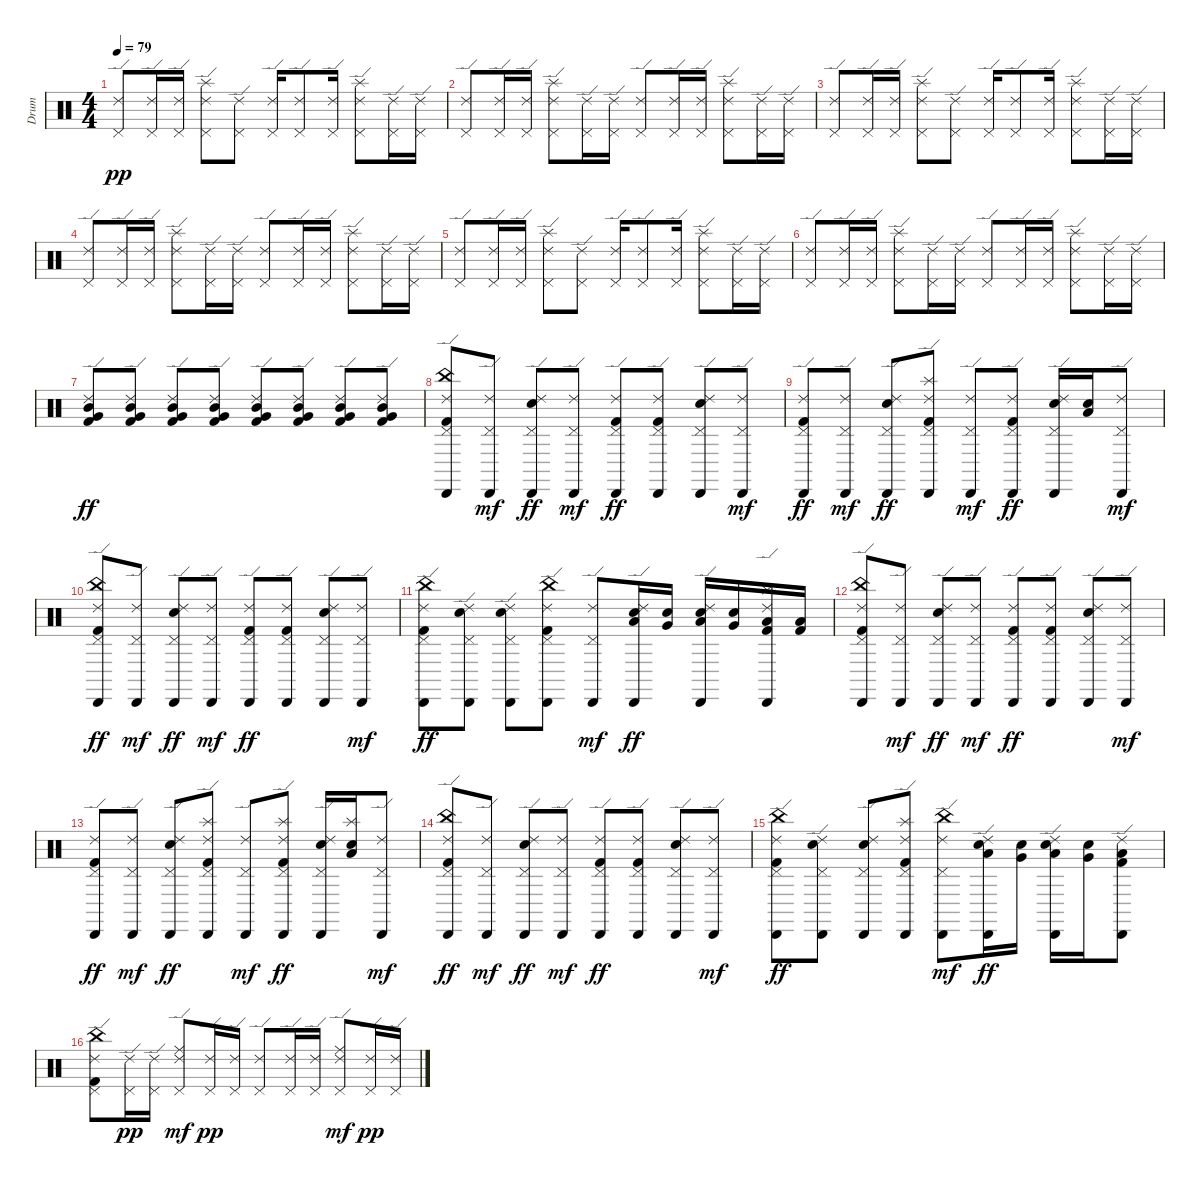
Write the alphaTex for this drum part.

\track ("Drum" "Drum") {instrument percussion}
\staff {score}
\articulation defaults
\ts (4 4)
\tempo 79
\clef neutral
\ks c
("Ride (edge) 2" "Pedal Hi-Hat (hit)").8{dy pp} ("Ride (edge) 2" "Pedal Hi-Hat (hit)").16 ("Ride (edge) 2" "Pedal Hi-Hat (hit)").16 ("Ride (edge) 2" "Pedal Hi-Hat (hit)" "Splash (hit)").8 ("Ride (edge) 2" "Pedal Hi-Hat (hit)").8 ("Ride (edge) 2" "Pedal Hi-Hat (hit)").16 ("Ride (edge) 2" "Pedal Hi-Hat (hit)").8 ("Ride (edge) 2" "Pedal Hi-Hat (hit)").16 ("Ride (edge) 2" "Pedal Hi-Hat (hit)" "Splash (hit)").8 ("Ride (edge) 2" "Pedal Hi-Hat (hit)").16 ("Ride (edge) 2" "Pedal Hi-Hat (hit)").16 |
("Ride (edge) 2" "Pedal Hi-Hat (hit)").8 ("Ride (edge) 2" "Pedal Hi-Hat (hit)").16 ("Ride (edge) 2" "Pedal Hi-Hat (hit)").16 ("Ride (edge) 2" "Pedal Hi-Hat (hit)" "Splash (hit)").8 ("Ride (edge) 2" "Pedal Hi-Hat (hit)").16 ("Ride (edge) 2" "Pedal Hi-Hat (hit)").16 ("Ride (edge) 2" "Pedal Hi-Hat (hit)").8 ("Ride (edge) 2" "Pedal Hi-Hat (hit)").16 ("Ride (edge) 2" "Pedal Hi-Hat (hit)").16 ("Ride (edge) 2" "Pedal Hi-Hat (hit)" "Splash (hit)").8 ("Ride (edge) 2" "Pedal Hi-Hat (hit)").16 ("Ride (edge) 2" "Pedal Hi-Hat (hit)").16 |
("Ride (edge) 2" "Pedal Hi-Hat (hit)").8 ("Ride (edge) 2" "Pedal Hi-Hat (hit)").16 ("Ride (edge) 2" "Pedal Hi-Hat (hit)").16 ("Ride (edge) 2" "Pedal Hi-Hat (hit)" "Splash (hit)").8 ("Ride (edge) 2" "Pedal Hi-Hat (hit)").8 ("Ride (edge) 2" "Pedal Hi-Hat (hit)").16 ("Ride (edge) 2" "Pedal Hi-Hat (hit)").8 ("Ride (edge) 2" "Pedal Hi-Hat (hit)").16 ("Ride (edge) 2" "Pedal Hi-Hat (hit)" "Splash (hit)").8 ("Ride (edge) 2" "Pedal Hi-Hat (hit)").16 ("Ride (edge) 2" "Pedal Hi-Hat (hit)").16 |
("Ride (edge) 2" "Pedal Hi-Hat (hit)").8 ("Ride (edge) 2" "Pedal Hi-Hat (hit)").16 ("Ride (edge) 2" "Pedal Hi-Hat (hit)").16 ("Ride (edge) 2" "Pedal Hi-Hat (hit)" "Splash (hit)").8 ("Ride (edge) 2" "Pedal Hi-Hat (hit)").16 ("Ride (edge) 2" "Pedal Hi-Hat (hit)").16 ("Ride (edge) 2" "Pedal Hi-Hat (hit)").8 ("Ride (edge) 2" "Pedal Hi-Hat (hit)").16 ("Ride (edge) 2" "Pedal Hi-Hat (hit)").16 ("Ride (edge) 2" "Pedal Hi-Hat (hit)" "Splash (hit)").8 ("Ride (edge) 2" "Pedal Hi-Hat (hit)").16 ("Ride (edge) 2" "Pedal Hi-Hat (hit)").16 |
("Ride (edge) 2" "Pedal Hi-Hat (hit)").8 ("Ride (edge) 2" "Pedal Hi-Hat (hit)").16 ("Ride (edge) 2" "Pedal Hi-Hat (hit)").16 ("Ride (edge) 2" "Pedal Hi-Hat (hit)" "Splash (hit)").8 ("Ride (edge) 2" "Pedal Hi-Hat (hit)").8 ("Ride (edge) 2" "Pedal Hi-Hat (hit)").16 ("Ride (edge) 2" "Pedal Hi-Hat (hit)").8 ("Ride (edge) 2" "Pedal Hi-Hat (hit)").16 ("Ride (edge) 2" "Pedal Hi-Hat (hit)" "Splash (hit)").8 ("Ride (edge) 2" "Pedal Hi-Hat (hit)").16 ("Ride (edge) 2" "Pedal Hi-Hat (hit)").16 |
("Ride (edge) 2" "Pedal Hi-Hat (hit)").8 ("Ride (edge) 2" "Pedal Hi-Hat (hit)").16 ("Ride (edge) 2" "Pedal Hi-Hat (hit)").16 ("Ride (edge) 2" "Pedal Hi-Hat (hit)" "Splash (hit)").8 ("Ride (edge) 2" "Pedal Hi-Hat (hit)").16 ("Ride (edge) 2" "Pedal Hi-Hat (hit)").16 ("Ride (edge) 2" "Pedal Hi-Hat (hit)").8 ("Ride (edge) 2" "Pedal Hi-Hat (hit)").16 ("Ride (edge) 2" "Pedal Hi-Hat (hit)").16 ("Ride (edge) 2" "Pedal Hi-Hat (hit)" "Splash (hit)").8 ("Ride (edge) 2" "Pedal Hi-Hat (hit)").16 ("Ride (edge) 2" "Pedal Hi-Hat (hit)").16 |
("Ride (edge) 2" "Mid Tom (hit)" "Very Low Tom (hit)" "Kick (hit) 2").8{dy ff} ("Ride (edge) 2" "Mid Tom (hit)" "Very Low Tom (hit)" "Kick (hit) 2").8 ("Ride (edge) 2" "Mid Tom (hit)" "Very Low Tom (hit)" "Kick (hit) 2").8 ("Ride (edge) 2" "Mid Tom (hit)" "Very Low Tom (hit)" "Kick (hit) 2").8 ("Ride (edge) 2" "Mid Tom (hit)" "Very Low Tom (hit)" "Kick (hit) 2").8 ("Ride (edge) 2" "Mid Tom (hit)" "Very Low Tom (hit)" "Kick (hit) 2").8 ("Ride (edge) 2" "Mid Tom (hit)" "Very Low Tom (hit)" "Kick (hit) 2").8 ("Ride (edge) 2" "Mid Tom (hit)" "Very Low Tom (hit)" "Kick (hit) 2").8 |
("Ride (edge) 2" "Cabasa (hit)" "Pedal Hi-Hat (hit)" "China (hit)" "Kick (hit) 2").8 ("Ride (edge) 2" "Cabasa (hit)" "Pedal Hi-Hat (hit)").8{dy mf} ("Ride (edge) 2" "Cabasa (hit)" "Pedal Hi-Hat (hit)" "Snare (hit) 2").8{dy ff} ("Ride (edge) 2" "Cabasa (hit)" "Pedal Hi-Hat (hit)").8{dy mf} ("Ride (edge) 2" "Cabasa (hit)" "Pedal Hi-Hat (hit)" "Kick (hit) 2").8{dy ff} ("Ride (edge) 2" "Cabasa (hit)" "Pedal Hi-Hat (hit)" "Kick (hit) 2").8 ("Ride (edge) 2" "Cabasa (hit)" "Pedal Hi-Hat (hit)" "Snare (hit) 2").8 ("Ride (edge) 2" "Cabasa (hit)" "Pedal Hi-Hat (hit)").8{dy mf} |
("Ride (edge) 2" "Cabasa (hit)" "Pedal Hi-Hat (hit)" "Kick (hit) 2").8{dy ff} ("Ride (edge) 2" "Cabasa (hit)" "Pedal Hi-Hat (hit)").8{dy mf} ("Ride (edge) 2" "Cabasa (hit)" "Pedal Hi-Hat (hit)" "Snare (hit) 2").8{dy ff} ("Ride (edge) 2" "Cabasa (hit)" "Pedal Hi-Hat (hit)" "Splash (hit)" "Kick (hit) 2").8 ("Ride (edge) 2" "Cabasa (hit)" "Pedal Hi-Hat (hit)").8{dy mf} ("Ride (edge) 2" "Cabasa (hit)" "Pedal Hi-Hat (hit)" "Kick (hit) 2").8{dy ff} ("Ride (edge) 2" "Cabasa (hit)" "Pedal Hi-Hat (hit)" "Snare (hit) 2").16 ("Low Tom (hit)" "Snare (hit) 2").16 ("Ride (edge) 2" "Cabasa (hit)" "Pedal Hi-Hat (hit)").8{dy mf} |
("Ride (edge) 2" "Cabasa (hit)" "Pedal Hi-Hat (hit)" "China (hit)" "Kick (hit) 2").8{dy ff} ("Ride (edge) 2" "Cabasa (hit)" "Pedal Hi-Hat (hit)").8{dy mf} ("Ride (edge) 2" "Cabasa (hit)" "Pedal Hi-Hat (hit)" "Snare (hit) 2").8{dy ff} ("Ride (edge) 2" "Cabasa (hit)" "Pedal Hi-Hat (hit)").8{dy mf} ("Ride (edge) 2" "Cabasa (hit)" "Pedal Hi-Hat (hit)" "Kick (hit) 2").8{dy ff} ("Ride (edge) 2" "Cabasa (hit)" "Pedal Hi-Hat (hit)" "Kick (hit) 2").8 ("Ride (edge) 2" "Cabasa (hit)" "Pedal Hi-Hat (hit)" "Snare (hit) 2").8 ("Ride (edge) 2" "Cabasa (hit)" "Pedal Hi-Hat (hit)").8{dy mf} |
("Ride (edge) 2" "Cabasa (hit)" "Pedal Hi-Hat (hit)" "China (hit)" "Kick (hit) 2").8{dy ff} ("Ride (edge) 2" "Cabasa (hit)" "Pedal Hi-Hat (hit)" "Snare (hit) 2").8 ("Ride (edge) 2" "Cabasa (hit)" "Pedal Hi-Hat (hit)" "Snare (hit) 2").8 ("Ride (edge) 2" "Cabasa (hit)" "Pedal Hi-Hat (hit)" "China (hit)" "Kick (hit) 2").8 ("Ride (edge) 2" "Cabasa (hit)" "Pedal Hi-Hat (hit)").8{dy mf} ("Ride (edge) 2" "Cabasa (hit)" "Low Tom (hit)" "Snare (hit) 2").16{dy ff} ("Very Low Tom (hit)" "Snare (hit) 2").16 ("Ride (edge) 2" "Cabasa (hit)" "Low Tom (hit)" "Snare (hit) 2").16 ("Very Low Tom (hit)" "Snare (hit) 2").16 ("Ride (edge) 2" "Cabasa (hit)" "Splash (hit)" "Low Floor Tom (hit)" "Kick (hit) 2").16 ("Low Floor Tom (hit)" "Kick (hit) 2").16 |
("Ride (edge) 2" "Cabasa (hit)" "Pedal Hi-Hat (hit)" "China (hit)" "Kick (hit) 2").8 ("Ride (edge) 2" "Cabasa (hit)" "Pedal Hi-Hat (hit)").8{dy mf} ("Ride (edge) 2" "Cabasa (hit)" "Pedal Hi-Hat (hit)" "Snare (hit) 2").8{dy ff} ("Ride (edge) 2" "Cabasa (hit)" "Pedal Hi-Hat (hit)").8{dy mf} ("Ride (edge) 2" "Cabasa (hit)" "Pedal Hi-Hat (hit)" "Kick (hit) 2").8{dy ff} ("Ride (edge) 2" "Cabasa (hit)" "Pedal Hi-Hat (hit)" "Kick (hit) 2").8 ("Ride (edge) 2" "Cabasa (hit)" "Pedal Hi-Hat (hit)" "Snare (hit) 2").8 ("Ride (edge) 2" "Cabasa (hit)" "Pedal Hi-Hat (hit)").8{dy mf} |
("Ride (edge) 2" "Cabasa (hit)" "Pedal Hi-Hat (hit)" "Kick (hit) 2").8{dy ff} ("Ride (edge) 2" "Cabasa (hit)" "Pedal Hi-Hat (hit)").8{dy mf} ("Ride (edge) 2" "Cabasa (hit)" "Pedal Hi-Hat (hit)" "Snare (hit) 2").8{dy ff} ("Ride (edge) 2" "Cabasa (hit)" "Pedal Hi-Hat (hit)" "Splash (hit)" "Kick (hit) 2").8 ("Ride (edge) 2" "Cabasa (hit)" "Pedal Hi-Hat (hit)").8{dy mf} ("Ride (edge) 2" "Cabasa (hit)" "Pedal Hi-Hat (hit)" "Splash (hit)" "Kick (hit) 2").8{dy ff} ("Ride (edge) 2" "Cabasa (hit)" "Pedal Hi-Hat (hit)" "Snare (hit) 2").16 ("Splash (hit)" "Low Tom (hit)" "Snare (hit) 2").16 ("Ride (edge) 2" "Cabasa (hit)" "Pedal Hi-Hat (hit)").8{dy mf} |
("Ride (edge) 2" "Cabasa (hit)" "Pedal Hi-Hat (hit)" "China (hit)" "Kick (hit) 2").8{dy ff} ("Ride (edge) 2" "Cabasa (hit)" "Pedal Hi-Hat (hit)").8{dy mf} ("Ride (edge) 2" "Cabasa (hit)" "Pedal Hi-Hat (hit)" "Snare (hit) 2").8{dy ff} ("Ride (edge) 2" "Cabasa (hit)" "Pedal Hi-Hat (hit)").8{dy mf} ("Ride (edge) 2" "Cabasa (hit)" "Pedal Hi-Hat (hit)" "Kick (hit) 2").8{dy ff} ("Ride (edge) 2" "Cabasa (hit)" "Pedal Hi-Hat (hit)" "Kick (hit) 2").8 ("Ride (edge) 2" "Cabasa (hit)" "Pedal Hi-Hat (hit)" "Snare (hit) 2").8 ("Ride (edge) 2" "Cabasa (hit)" "Pedal Hi-Hat (hit)").8{dy mf} |
("Ride (edge) 2" "Cabasa (hit)" "Pedal Hi-Hat (hit)" "China (hit)" "Kick (hit) 2").8{dy ff} ("Ride (edge) 2" "Cabasa (hit)" "Pedal Hi-Hat (hit)" "Snare (hit) 2").8 ("Ride (edge) 2" "Cabasa (hit)" "Pedal Hi-Hat (hit)" "Snare (hit) 2").8 ("Ride (edge) 2" "Cabasa (hit)" "Pedal Hi-Hat (hit)" "Splash (hit)" "Kick (hit) 2").8 ("Ride (edge) 2" "Cabasa (hit)" "Pedal Hi-Hat (hit)" "China (hit)").8{dy mf} ("Ride (edge) 2" "Cabasa (hit)" "Low Tom (hit)" "Snare (hit) 2").16{dy ff} ("Very Low Tom (hit)" "Snare (hit) 2").16 ("Ride (edge) 2" "Cabasa (hit)" "Low Tom (hit)" "Snare (hit) 2").16 ("Very Low Tom (hit)" "Snare (hit) 2").16 ("Ride (edge) 2" "Cabasa (hit)" "Low Floor Tom (hit)" "Kick (hit) 2").8 |
("Ride (edge) 2" "Pedal Hi-Hat (hit)" "China (hit)" "Kick (hit) 2").8 ("Ride (edge) 2" "Pedal Hi-Hat (hit)").16{dy pp} ("Ride (edge) 2" "Pedal Hi-Hat (hit)").16 ("Ride (edge) 2" "Pedal Hi-Hat (hit)" "Ride (middle)").8{dy mf} ("Ride (edge) 2" "Pedal Hi-Hat (hit)").16{dy pp} ("Ride (edge) 2" "Pedal Hi-Hat (hit)").16 ("Ride (edge) 2" "Pedal Hi-Hat (hit)").8 ("Ride (edge) 2" "Pedal Hi-Hat (hit)").16 ("Ride (edge) 2" "Pedal Hi-Hat (hit)").16 ("Ride (edge) 2" "Pedal Hi-Hat (hit)" "Ride (middle)").8{dy mf} ("Ride (edge) 2" "Pedal Hi-Hat (hit)").16{dy pp} ("Ride (edge) 2" "Pedal Hi-Hat (hit)").16
